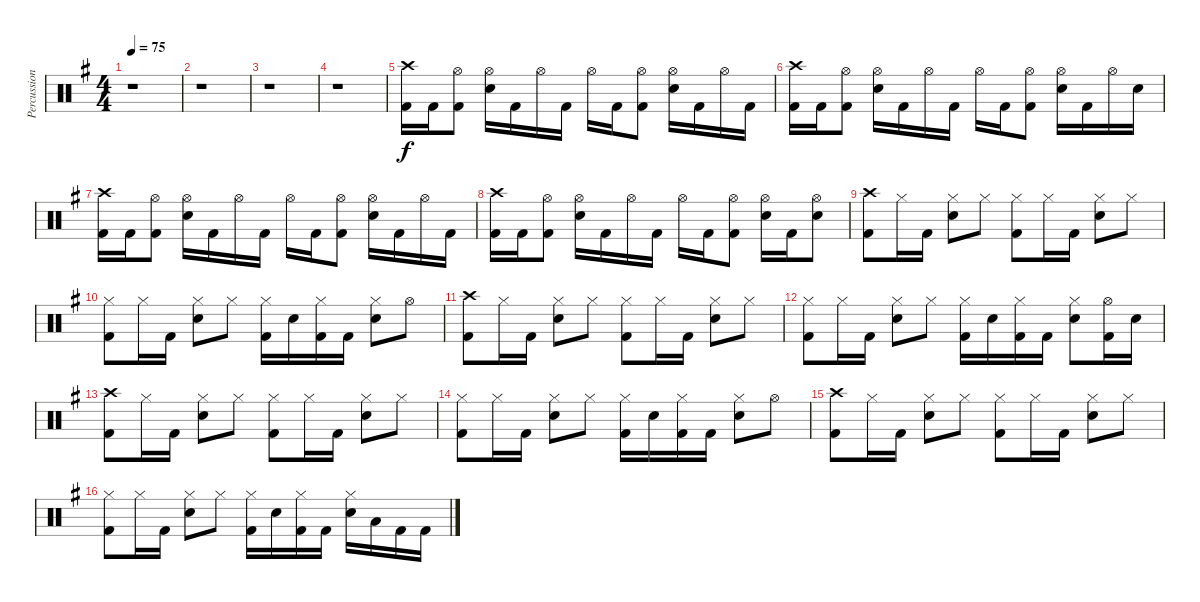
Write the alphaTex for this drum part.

\track ("Percussion" "Percussion") {instrument percussion}
\staff {score}
\articulation defaults
\ts (4 4)
\tempo 75
\clef neutral
\ks eminor
r.1{dy f} |
r.1 |
r.1 |
r.1 |
("Crash high (hit)" "Kick (hit) 2").16 "Kick (hit) 2".16 ("Hi-Hat (open)" "Kick (hit) 2").8 ("Hi-Hat (open)" "Electric Snare (hit)").16 "Kick (hit) 2".16 "Hi-Hat (open)".16 "Kick (hit) 2".16 "Hi-Hat (open)".16 "Kick (hit) 2".16 ("Hi-Hat (open)" "Kick (hit) 2").8 ("Hi-Hat (open)" "Electric Snare (hit)").16 "Kick (hit) 2".16 "Hi-Hat (open)".16 "Kick (hit) 2".16 |
("Crash high (hit)" "Kick (hit) 2").16 "Kick (hit) 2".16 ("Hi-Hat (open)" "Kick (hit) 2").8 ("Hi-Hat (open)" "Electric Snare (hit)").16 "Kick (hit) 2".16 "Hi-Hat (open)".16 "Kick (hit) 2".16 "Hi-Hat (open)".16 "Kick (hit) 2".16 ("Hi-Hat (open)" "Kick (hit) 2").8 ("Hi-Hat (open)" "Electric Snare (hit)").16 "Kick (hit) 2".16 "Hi-Hat (open)".16 "Electric Snare (hit)".16 |
("Crash high (hit)" "Kick (hit) 2").16 "Kick (hit) 2".16 ("Hi-Hat (open)" "Kick (hit) 2").8 ("Hi-Hat (open)" "Electric Snare (hit)").16 "Kick (hit) 2".16 "Hi-Hat (open)".16 "Kick (hit) 2".16 "Hi-Hat (open)".16 "Kick (hit) 2".16 ("Hi-Hat (open)" "Kick (hit) 2").8 ("Hi-Hat (open)" "Electric Snare (hit)").16 "Kick (hit) 2".16 "Hi-Hat (open)".16 "Kick (hit) 2".16 |
("Crash high (hit)" "Kick (hit) 2").16 "Kick (hit) 2".16 ("Hi-Hat (open)" "Kick (hit) 2").8 ("Hi-Hat (open)" "Electric Snare (hit)").16 "Kick (hit) 2".16 "Hi-Hat (open)".16 "Kick (hit) 2".16 "Hi-Hat (open)".16 "Kick (hit) 2".16 ("Hi-Hat (open)" "Kick (hit) 2").8 ("Hi-Hat (open)" "Electric Snare (hit)").16 "Kick (hit) 2".16 ("Hi-Hat (open)" "Electric Snare (hit)").8 |
("Crash high (hit)" "Kick (hit) 2").8 "Hi-Hat (closed)".16 "Kick (hit) 2".16 ("Hi-Hat (closed)" "Electric Snare (hit)").8 "Hi-Hat (closed)".8 ("Hi-Hat (closed)" "Kick (hit) 2").8 "Hi-Hat (closed)".16 "Kick (hit) 2".16 ("Hi-Hat (closed)" "Electric Snare (hit)").8 "Hi-Hat (closed)".8 |
("Hi-Hat (closed)" "Kick (hit) 2").8 "Hi-Hat (closed)".16 "Kick (hit) 2".16 ("Hi-Hat (closed)" "Electric Snare (hit)").8 "Hi-Hat (closed)".8 ("Hi-Hat (closed)" "Kick (hit) 2").16 "Electric Snare (hit)".16 ("Hi-Hat (closed)" "Kick (hit) 2").16 "Kick (hit) 2".16 ("Hi-Hat (closed)" "Electric Snare (hit)").8 "Hi-Hat (open)".8 |
("Crash high (hit)" "Kick (hit) 2").8 "Hi-Hat (closed)".16 "Kick (hit) 2".16 ("Hi-Hat (closed)" "Electric Snare (hit)").8 "Hi-Hat (closed)".8 ("Hi-Hat (closed)" "Kick (hit) 2").8 "Hi-Hat (closed)".16 "Kick (hit) 2".16 ("Hi-Hat (closed)" "Electric Snare (hit)").8 "Hi-Hat (closed)".8 |
("Hi-Hat (closed)" "Kick (hit) 2").8 "Hi-Hat (closed)".16 "Kick (hit) 2".16 ("Hi-Hat (closed)" "Electric Snare (hit)").8 "Hi-Hat (closed)".8 ("Hi-Hat (closed)" "Kick (hit) 2").16 "Electric Snare (hit)".16 ("Hi-Hat (closed)" "Kick (hit) 2").16 "Kick (hit) 2".16 ("Hi-Hat (closed)" "Electric Snare (hit)").8 ("Hi-Hat (open)" "Kick (hit) 2").16 "Electric Snare (hit)".16 |
("Crash high (hit)" "Kick (hit) 2").8 "Hi-Hat (closed)".16 "Kick (hit) 2".16 ("Hi-Hat (closed)" "Electric Snare (hit)").8 "Hi-Hat (closed)".8 ("Hi-Hat (closed)" "Kick (hit) 2").8 "Hi-Hat (closed)".16 "Kick (hit) 2".16 ("Hi-Hat (closed)" "Electric Snare (hit)").8 "Hi-Hat (closed)".8 |
("Hi-Hat (closed)" "Kick (hit) 2").8 "Hi-Hat (closed)".16 "Kick (hit) 2".16 ("Hi-Hat (closed)" "Electric Snare (hit)").8 "Hi-Hat (closed)".8 ("Hi-Hat (closed)" "Kick (hit) 2").16 "Electric Snare (hit)".16 ("Hi-Hat (closed)" "Kick (hit) 2").16 "Kick (hit) 2".16 ("Hi-Hat (closed)" "Electric Snare (hit)").8 "Hi-Hat (open)".8 |
("Crash high (hit)" "Kick (hit) 2").8 "Hi-Hat (closed)".16 "Kick (hit) 2".16 ("Hi-Hat (closed)" "Electric Snare (hit)").8 "Hi-Hat (closed)".8 ("Hi-Hat (closed)" "Kick (hit) 2").8 "Hi-Hat (closed)".16 "Kick (hit) 2".16 ("Hi-Hat (closed)" "Electric Snare (hit)").8 "Hi-Hat (closed)".8 |
("Hi-Hat (closed)" "Kick (hit) 2").8 "Hi-Hat (closed)".16 "Kick (hit) 2".16 ("Hi-Hat (closed)" "Electric Snare (hit)").8 "Hi-Hat (closed)".8 ("Hi-Hat (closed)" "Kick (hit) 2").16 "Electric Snare (hit)".16 ("Hi-Hat (closed)" "Kick (hit) 2").16 "Kick (hit) 2".16 ("Hi-Hat (closed)" "Electric Snare (hit)").16 "Low Tom (hit)".16 "Kick (hit) 2".16 "Kick (hit) 2".16
